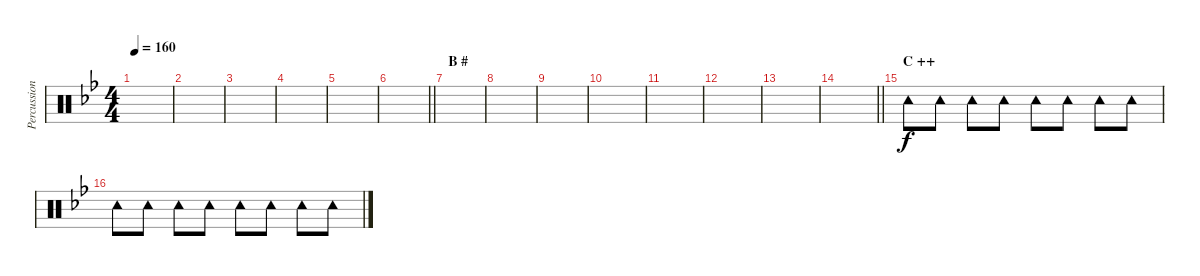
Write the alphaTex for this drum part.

\track ("Percussion (Tainaka Ritsu)" "Percussion") {instrument percussion}
\staff {score}
\articulation defaults
\ts (4 4)
\tempo 160
\clef neutral
\ks bb
|
|
|
|
|
\barLineRight lightlight
|
\section ("" "B #")
|
|
|
|
|
|
|
\barLineRight lightlight
|
\section ("" "C ++")
"Tambourine (hit)".8 "Tambourine (hit)".8 "Tambourine (hit)".8 "Tambourine (hit)".8 "Tambourine (hit)".8 "Tambourine (hit)".8 "Tambourine (hit)".8 "Tambourine (hit)".8 |
"Tambourine (hit)".8 "Tambourine (hit)".8 "Tambourine (hit)".8 "Tambourine (hit)".8 "Tambourine (hit)".8 "Tambourine (hit)".8 "Tambourine (hit)".8 "Tambourine (hit)".8
